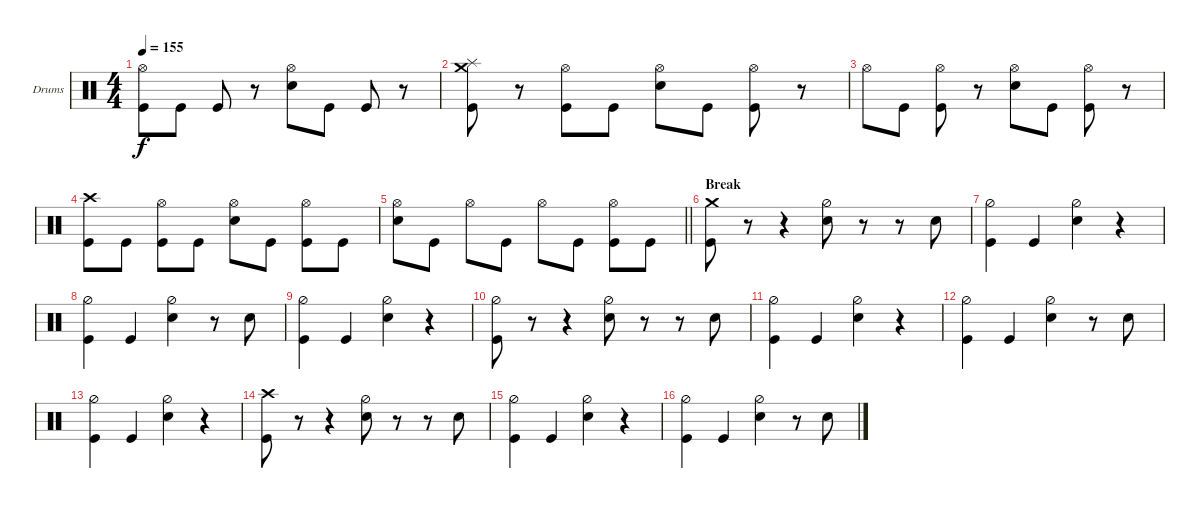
\defaultSystemsLayout 4
\bracketExtendMode groupsimilarinstruments
\firstSystemTrackNameOrientation horizontal
\otherSystemsTrackNameOrientation horizontal
\track ("Drumkit" "Drums") {instrument percussion}
\staff {score}
\articulation defaults
\ts (4 4)
\tempo 155
\clef neutral
\ks c
("Kick (hit)" "Hi-Hat (open)").8{dy f} "Kick (hit)".8 "Kick (hit)".8 r.8 ("Snare (hit) 2" "Hi-Hat (open)").8 "Kick (hit)".8 "Kick (hit)".8 r.8 |
("Splash (hit)" "Crash medium (hit)" "Kick (hit)").8 r.8 ("Hi-Hat (open)" "Kick (hit)").8 "Kick (hit)".8 ("Hi-Hat (open)" "Snare (hit) 2").8 "Kick (hit)".8 ("Hi-Hat (open)" "Kick (hit)").8 r.8 |
"Hi-Hat (open)".8 "Kick (hit)".8 ("Hi-Hat (open)" "Kick (hit)").8 r.8 ("Hi-Hat (open)" "Snare (hit) 2").8 "Kick (hit)".8 ("Hi-Hat (open)" "Kick (hit)").8 r.8 |
("Crash high (hit)" "Kick (hit)").8 "Kick (hit)".8 ("Hi-Hat (open)" "Kick (hit)").8 "Kick (hit)".8 ("Hi-Hat (open)" "Snare (hit) 2").8 "Kick (hit)".8 ("Hi-Hat (open)" "Kick (hit)").8 "Kick (hit)".8 |
\barLineRight lightlight
("Hi-Hat (open)" "Snare (hit) 2").8 "Kick (hit)".8 "Hi-Hat (open)".8 "Kick (hit)".8 "Hi-Hat (open)".8 "Kick (hit)".8 ("Hi-Hat (open)" "Kick (hit)").8 "Kick (hit)".8 |
\section ("" "Break")
("Kick (hit)" "Crash medium (hit)").8 r.8 r.4 ("Hi-Hat (half)" "Snare (hit) 2").8 r.8 r.8 "Snare (hit) 2".8 |
("Kick (hit)" "Hi-Hat (half)").4 "Kick (hit)".4 ("Snare (hit) 2" "Hi-Hat (half)").4 r.4 |
("Hi-Hat (half)" "Kick (hit)").4 "Kick (hit)".4 ("Hi-Hat (half)" "Snare (hit) 2").4 r.8 "Snare (hit) 2".8 |
("Hi-Hat (half)" "Kick (hit)").4 "Kick (hit)".4 ("Hi-Hat (half)" "Snare (hit) 2").4 r.4 |
("Kick (hit)" "Hi-Hat (half)").8 r.8 r.4 ("Hi-Hat (half)" "Snare (hit) 2").8 r.8 r.8 "Snare (hit) 2".8 |
("Kick (hit)" "Hi-Hat (half)").4 "Kick (hit)".4 ("Snare (hit) 2" "Hi-Hat (half)").4 r.4 |
("Hi-Hat (half)" "Kick (hit)").4 "Kick (hit)".4 ("Hi-Hat (half)" "Snare (hit) 2").4 r.8 "Snare (hit) 2".8 |
("Hi-Hat (half)" "Kick (hit)").4 "Kick (hit)".4 ("Hi-Hat (half)" "Snare (hit) 2").4 r.4 |
("Kick (hit)" "Crash high (hit)").8 r.8 r.4 ("Hi-Hat (half)" "Snare (hit) 2").8 r.8 r.8 "Snare (hit) 2".8 |
("Kick (hit)" "Hi-Hat (half)").4 "Kick (hit)".4 ("Snare (hit) 2" "Hi-Hat (half)").4 r.4 |
("Hi-Hat (half)" "Kick (hit)").4 "Kick (hit)".4 ("Hi-Hat (half)" "Snare (hit) 2").4 r.8 "Snare (hit) 2".8
